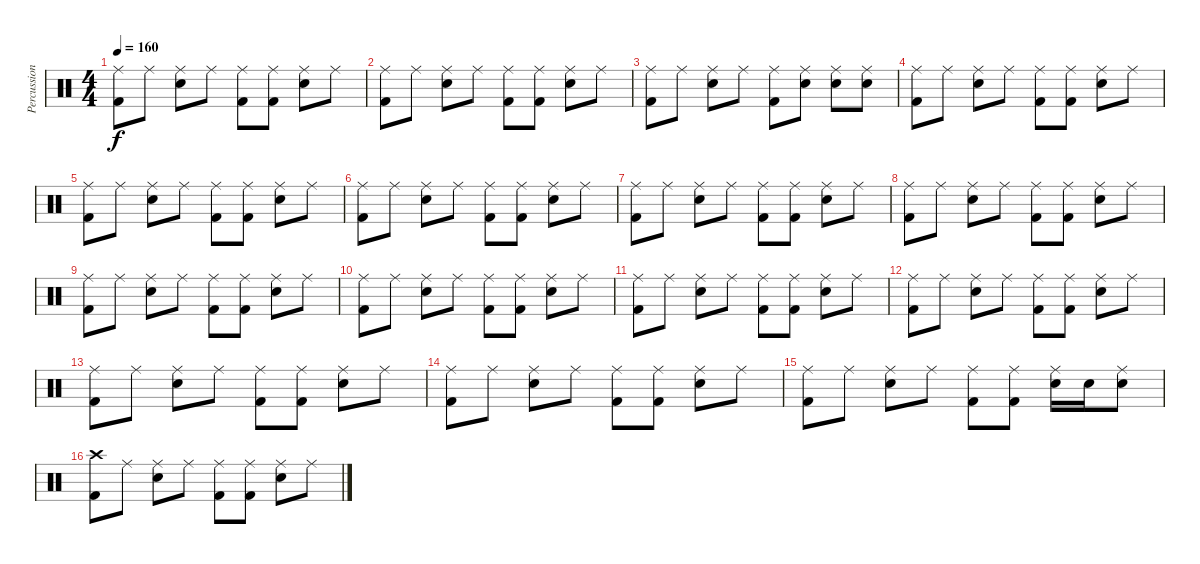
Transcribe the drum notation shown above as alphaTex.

\track ("Percussions" "Percussion") {instrument percussion}
\staff {score}
\articulation defaults
\ts (4 4)
\tempo 160
\clef neutral
\ks c
("Kick (hit) 2" "Ride (middle)").8{dy f} "Ride (middle)".8 ("Snare (hit) 2" "Ride (middle)").8 "Ride (middle)".8 ("Kick (hit) 2" "Ride (middle)").8 ("Kick (hit) 2" "Ride (middle)").8 ("Ride (middle)" "Snare (hit) 2").8 "Ride (middle)".8 |
("Ride (middle)" "Kick (hit) 2").8 "Ride (middle)".8 ("Ride (middle)" "Snare (hit) 2").8 "Ride (middle)".8 ("Ride (middle)" "Kick (hit) 2").8 ("Ride (middle)" "Kick (hit) 2").8 ("Ride (middle)" "Snare (hit) 2").8 "Ride (middle)".8 |
("Ride (middle)" "Kick (hit) 2").8 "Ride (middle)".8 ("Ride (middle)" "Snare (hit) 2").8 "Ride (middle)".8 ("Ride (middle)" "Kick (hit) 2").8 ("Ride (middle)" "Snare (hit) 2").8 ("Ride (middle)" "Snare (hit) 2").8 ("Ride (middle)" "Snare (hit) 2").8 |
("Ride (middle)" "Kick (hit) 2").8 "Ride (middle)".8 ("Ride (middle)" "Snare (hit) 2").8 "Ride (middle)".8 ("Ride (middle)" "Kick (hit) 2").8 ("Ride (middle)" "Kick (hit) 2").8 ("Ride (middle)" "Snare (hit) 2").8 "Ride (middle)".8 |
("Ride (middle)" "Kick (hit) 2").8 "Ride (middle)".8 ("Ride (middle)" "Snare (hit) 2").8 "Ride (middle)".8 ("Ride (middle)" "Kick (hit) 2").8 ("Ride (middle)" "Kick (hit) 2").8 ("Ride (middle)" "Snare (hit) 2").8 "Ride (middle)".8 |
("Ride (middle)" "Kick (hit) 2").8 "Ride (middle)".8 ("Ride (middle)" "Snare (hit) 2").8 "Ride (middle)".8 ("Ride (middle)" "Kick (hit) 2").8 ("Ride (middle)" "Kick (hit) 2").8 ("Ride (middle)" "Snare (hit) 2").8 "Ride (middle)".8 |
("Ride (middle)" "Kick (hit) 2").8 "Ride (middle)".8 ("Ride (middle)" "Snare (hit) 2").8 "Ride (middle)".8 ("Ride (middle)" "Kick (hit) 2").8 ("Ride (middle)" "Kick (hit) 2").8 ("Ride (middle)" "Snare (hit) 2").8 "Ride (middle)".8 |
("Ride (middle)" "Kick (hit) 2").8 "Ride (middle)".8 ("Ride (middle)" "Snare (hit) 2").8 "Ride (middle)".8 ("Ride (middle)" "Kick (hit) 2").8 ("Ride (middle)" "Kick (hit) 2").8 ("Ride (middle)" "Snare (hit) 2").8 "Ride (middle)".8 |
("Ride (middle)" "Kick (hit) 2").8 "Ride (middle)".8 ("Ride (middle)" "Snare (hit) 2").8 "Ride (middle)".8 ("Ride (middle)" "Kick (hit) 2").8 ("Ride (middle)" "Kick (hit) 2").8 ("Ride (middle)" "Snare (hit) 2").8 "Ride (middle)".8 |
("Ride (middle)" "Kick (hit) 2").8 "Ride (middle)".8 ("Ride (middle)" "Snare (hit) 2").8 "Ride (middle)".8 ("Ride (middle)" "Kick (hit) 2").8 ("Ride (middle)" "Kick (hit) 2").8 ("Ride (middle)" "Snare (hit) 2").8 "Ride (middle)".8 |
("Ride (middle)" "Kick (hit) 2").8 "Ride (middle)".8 ("Ride (middle)" "Snare (hit) 2").8 "Ride (middle)".8 ("Ride (middle)" "Kick (hit) 2").8 ("Ride (middle)" "Kick (hit) 2").8 ("Ride (middle)" "Snare (hit) 2").8 "Ride (middle)".8 |
("Ride (middle)" "Kick (hit) 2").8 "Ride (middle)".8 ("Ride (middle)" "Snare (hit) 2").8 "Ride (middle)".8 ("Ride (middle)" "Kick (hit) 2").8 ("Ride (middle)" "Kick (hit) 2").8 ("Ride (middle)" "Snare (hit) 2").8 "Ride (middle)".8 |
("Ride (middle)" "Kick (hit) 2").8 "Ride (middle)".8 ("Ride (middle)" "Snare (hit) 2").8 "Ride (middle)".8 ("Ride (middle)" "Kick (hit) 2").8 ("Ride (middle)" "Kick (hit) 2").8 ("Ride (middle)" "Snare (hit) 2").8 "Ride (middle)".8 |
("Ride (middle)" "Kick (hit) 2").8 "Ride (middle)".8 ("Ride (middle)" "Snare (hit) 2").8 "Ride (middle)".8 ("Ride (middle)" "Kick (hit) 2").8 ("Ride (middle)" "Kick (hit) 2").8 ("Ride (middle)" "Snare (hit) 2").8 "Ride (middle)".8 |
("Ride (middle)" "Kick (hit) 2").8 "Ride (middle)".8 ("Ride (middle)" "Snare (hit) 2").8 "Ride (middle)".8 ("Ride (middle)" "Kick (hit) 2").8 ("Ride (middle)" "Kick (hit) 2").8 ("Ride (middle)" "Snare (hit) 2").16 "Snare (hit) 2".16 ("Ride (middle)" "Snare (hit) 2").8 |
("Crash high (hit)" "Kick (hit) 2").8 "Ride (middle)".8 ("Ride (middle)" "Snare (hit) 2").8 "Ride (middle)".8 ("Ride (middle)" "Kick (hit) 2").8 ("Ride (middle)" "Kick (hit) 2").8 ("Ride (middle)" "Snare (hit) 2").8 "Ride (middle)".8
